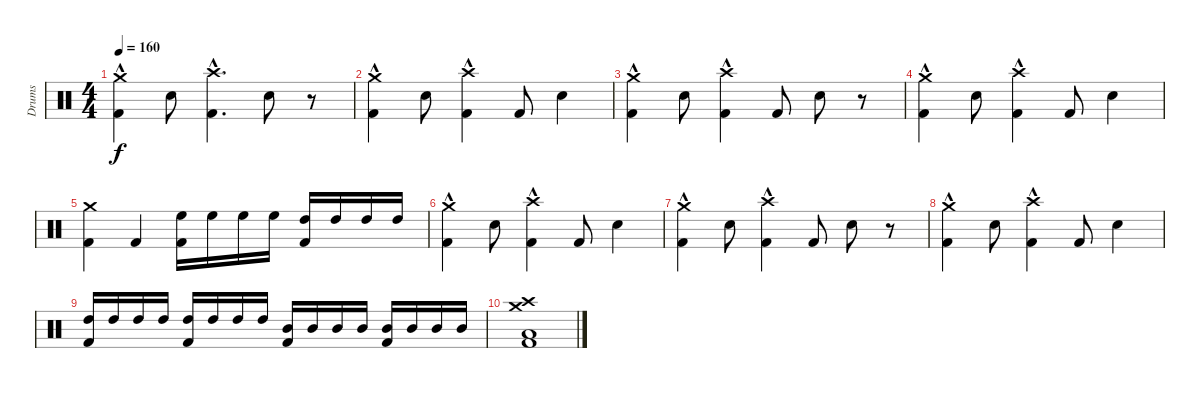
\track ("Drums" "Drums") {instrument percussion}
\staff {score}
\articulation defaults
\ts (4 4)
\tempo 160
\clef neutral
\ks c
("Crash medium (hit)"{hac} "Kick (hit) 2"{hac}).4{dy f} "Electric Snare (hit)".8 ("Crash high (hit)"{hac} "Kick (hit) 2"{hac}).4{d} "Electric Snare (hit)".8 r.8 |
("Crash medium (hit)"{hac} "Kick (hit) 2"{hac}).4 "Electric Snare (hit)".8 ("Crash high (hit)"{hac} "Kick (hit) 2").4 "Kick (hit) 2".8 "Electric Snare (hit)".4 |
("Crash medium (hit)"{hac} "Kick (hit) 2"{hac}).4 "Electric Snare (hit)".8 ("Crash high (hit)"{hac} "Kick (hit) 2").4 "Kick (hit) 2".8 "Electric Snare (hit)".8 r.8 |
("Crash medium (hit)"{hac} "Kick (hit) 2"{hac}).4 "Electric Snare (hit)".8 ("Crash high (hit)"{hac} "Kick (hit) 2").4 "Kick (hit) 2".8 "Electric Snare (hit)".4 |
("Crash medium (hit)" "Kick (hit) 2").4 "Kick (hit) 2".4 ("High Floor Tom (hit)" "Kick (hit) 2").16 "High Floor Tom (hit)".16 "High Floor Tom (hit)".16 "High Floor Tom (hit)".16 ("High Tom (hit)" "Kick (hit) 2").16 "High Tom (hit)".16 "High Tom (hit)".16 "High Tom (hit)".16 |
("Crash medium (hit)"{hac} "Kick (hit) 2"{hac}).4 "Electric Snare (hit)".8 ("Crash high (hit)"{hac} "Kick (hit) 2").4 "Kick (hit) 2".8 "Electric Snare (hit)".4 |
("Crash medium (hit)"{hac} "Kick (hit) 2"{hac}).4 "Electric Snare (hit)".8 ("Crash high (hit)"{hac} "Kick (hit) 2").4 "Kick (hit) 2".8 "Electric Snare (hit)".8 r.8 |
("Crash medium (hit)"{hac} "Kick (hit) 2"{hac}).4 "Electric Snare (hit)".8 ("Crash high (hit)"{hac} "Kick (hit) 2").4 "Kick (hit) 2".8 "Electric Snare (hit)".4 |
("Kick (hit) 2" "High Tom (hit)").16 "High Tom (hit)".16 "High Tom (hit)".16 "High Tom (hit)".16 ("Kick (hit) 2" "High Tom (hit)").16 "High Tom (hit)".16 "High Tom (hit)".16 "High Tom (hit)".16 ("Kick (hit) 2" "Mid Tom (hit)").16 "Mid Tom (hit)".16 "Mid Tom (hit)".16 "Mid Tom (hit)".16 ("Kick (hit) 2" "Mid Tom (hit)").16 "Mid Tom (hit)".16 "Mid Tom (hit)".16 "Mid Tom (hit)".16 |
("Crash high (hit)" "Kick (hit) 2" "Low Tom (hit)" "Crash medium (hit)").1
